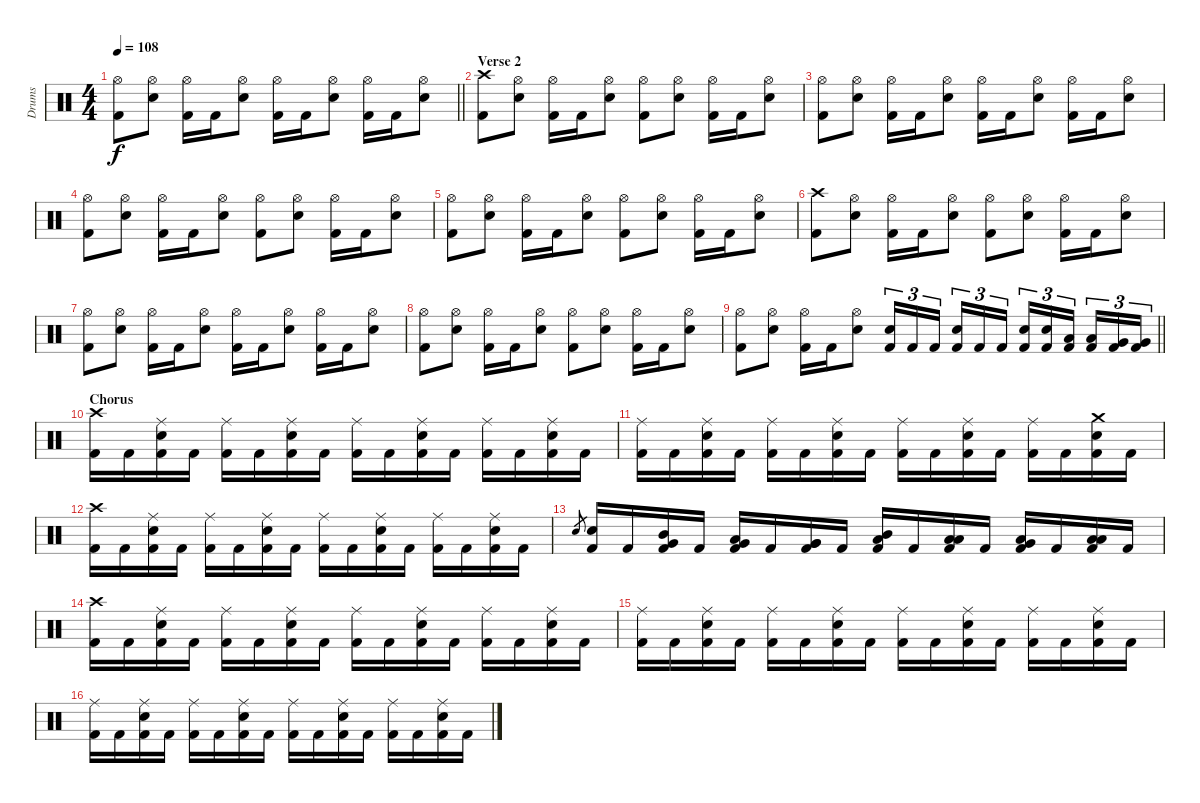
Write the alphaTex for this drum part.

\track ("Drums" "Drums") {instrument percussion}
\staff {score}
\articulation defaults
\ts (4 4)
\tempo 108
\clef neutral
\barLineRight lightlight
\ks c
("Hi-Hat (open)" "Kick (hit) 2").8{dy f} ("Hi-Hat (open)" "Electric Snare (hit)").8 ("Hi-Hat (open)" "Kick (hit) 2").16 "Kick (hit) 2".16 ("Hi-Hat (open)" "Electric Snare (hit)").8 ("Hi-Hat (open)" "Kick (hit) 2").16 "Kick (hit) 2".16 ("Hi-Hat (open)" "Electric Snare (hit)").8 ("Hi-Hat (open)" "Kick (hit) 2").16 "Kick (hit) 2".16 ("Hi-Hat (open)" "Electric Snare (hit)").8 |
\section ("" "Verse 2")
("Crash high (hit)" "Kick (hit) 2").8 ("Hi-Hat (open)" "Electric Snare (hit)").8 ("Hi-Hat (open)" "Kick (hit) 2").16 "Kick (hit) 2".16 ("Hi-Hat (open)" "Electric Snare (hit)").8 ("Hi-Hat (open)" "Kick (hit) 2").8 ("Hi-Hat (open)" "Electric Snare (hit)").8 ("Hi-Hat (open)" "Kick (hit) 2").16 "Kick (hit) 2".16 ("Hi-Hat (open)" "Electric Snare (hit)").8 |
("Hi-Hat (open)" "Kick (hit) 2").8 ("Hi-Hat (open)" "Electric Snare (hit)").8 ("Hi-Hat (open)" "Kick (hit) 2").16 "Kick (hit) 2".16 ("Hi-Hat (open)" "Electric Snare (hit)").8 ("Hi-Hat (open)" "Kick (hit) 2").16 "Kick (hit) 2".16 ("Hi-Hat (open)" "Electric Snare (hit)").8 ("Hi-Hat (open)" "Kick (hit) 2").16 "Kick (hit) 2".16 ("Hi-Hat (open)" "Electric Snare (hit)").8 |
("Hi-Hat (open)" "Kick (hit) 2").8 ("Hi-Hat (open)" "Electric Snare (hit)").8 ("Hi-Hat (open)" "Kick (hit) 2").16 "Kick (hit) 2".16 ("Hi-Hat (open)" "Electric Snare (hit)").8 ("Hi-Hat (open)" "Kick (hit) 2").8 ("Hi-Hat (open)" "Electric Snare (hit)").8 ("Hi-Hat (open)" "Kick (hit) 2").16 "Kick (hit) 2".16 ("Hi-Hat (open)" "Electric Snare (hit)").8 |
("Hi-Hat (open)" "Kick (hit) 2").8 ("Hi-Hat (open)" "Electric Snare (hit)").8 ("Hi-Hat (open)" "Kick (hit) 2").16 "Kick (hit) 2".16 ("Hi-Hat (open)" "Electric Snare (hit)").8 ("Hi-Hat (open)" "Kick (hit) 2").8 ("Hi-Hat (open)" "Electric Snare (hit)").8 ("Hi-Hat (open)" "Kick (hit) 2").16 "Kick (hit) 2".16 ("Hi-Hat (open)" "Electric Snare (hit)").8 |
("Crash high (hit)" "Kick (hit) 2").8 ("Hi-Hat (open)" "Electric Snare (hit)").8 ("Hi-Hat (open)" "Kick (hit) 2").16 "Kick (hit) 2".16 ("Hi-Hat (open)" "Electric Snare (hit)").8 ("Hi-Hat (open)" "Kick (hit) 2").8 ("Hi-Hat (open)" "Electric Snare (hit)").8 ("Hi-Hat (open)" "Kick (hit) 2").16 "Kick (hit) 2".16 ("Hi-Hat (open)" "Electric Snare (hit)").8 |
("Hi-Hat (open)" "Kick (hit) 2").8 ("Hi-Hat (open)" "Electric Snare (hit)").8 ("Hi-Hat (open)" "Kick (hit) 2").16 "Kick (hit) 2".16 ("Hi-Hat (open)" "Electric Snare (hit)").8 ("Hi-Hat (open)" "Kick (hit) 2").16 "Kick (hit) 2".16 ("Hi-Hat (open)" "Electric Snare (hit)").8 ("Hi-Hat (open)" "Kick (hit) 2").16 "Kick (hit) 2".16 ("Hi-Hat (open)" "Electric Snare (hit)").8 |
("Hi-Hat (open)" "Kick (hit) 2").8 ("Hi-Hat (open)" "Electric Snare (hit)").8 ("Hi-Hat (open)" "Kick (hit) 2").16 "Kick (hit) 2".16 ("Hi-Hat (open)" "Electric Snare (hit)").8 ("Hi-Hat (open)" "Kick (hit) 2").8 ("Hi-Hat (open)" "Electric Snare (hit)").8 ("Hi-Hat (open)" "Kick (hit) 2").16 "Kick (hit) 2".16 ("Hi-Hat (open)" "Electric Snare (hit)").8 |
\barLineRight lightlight
("Hi-Hat (open)" "Kick (hit) 2").8 ("Hi-Hat (open)" "Electric Snare (hit)").8 ("Hi-Hat (open)" "Kick (hit) 2").16 "Kick (hit) 2".16 ("Hi-Hat (open)" "Electric Snare (hit)").8 ("Electric Snare (hit)" "Kick (hit) 2").16{tu (3 2)} "Kick (hit) 2".16{tu (3 2)} "Kick (hit) 2".16{tu (3 2) beam splitsecondary} ("Electric Snare (hit)" "Kick (hit) 2").16{tu (3 2)} "Kick (hit) 2".16{tu (3 2)} "Kick (hit) 2".16{tu (3 2)} ("Electric Snare (hit)" "Kick (hit) 2").16{tu (3 2)} ("Electric Snare (hit)" "Kick (hit) 2").16{tu (3 2)} ("Low Tom (hit)" "Kick (hit) 2").16{tu (3 2) beam splitsecondary} ("Low Tom (hit)" "Kick (hit) 2").16{tu (3 2)} ("Very Low Tom (hit)" "Kick (hit) 2").16{tu (3 2)} ("Very Low Tom (hit)" "Kick (hit) 2").16{tu (3 2)} |
\section ("" "Chorus")
("Crash high (hit)" "Kick (hit) 2").16 "Kick (hit) 2".16 ("Ride (middle)" "Electric Snare (hit)" "Kick (hit) 2").16 "Kick (hit) 2".16 ("Ride (middle)" "Kick (hit) 2").16 "Kick (hit) 2".16 ("Ride (middle)" "Electric Snare (hit)" "Kick (hit) 2").16 "Kick (hit) 2".16 ("Ride (middle)" "Kick (hit) 2").16 "Kick (hit) 2".16 ("Ride (middle)" "Electric Snare (hit)" "Kick (hit) 2").16 "Kick (hit) 2".16 ("Ride (middle)" "Kick (hit) 2").16 "Kick (hit) 2".16 ("Ride (middle)" "Electric Snare (hit)" "Kick (hit) 2").16 "Kick (hit) 2".16 |
("Ride (middle)" "Kick (hit) 2").16 "Kick (hit) 2".16 ("Ride (middle)" "Electric Snare (hit)" "Kick (hit) 2").16 "Kick (hit) 2".16 ("Ride (middle)" "Kick (hit) 2").16 "Kick (hit) 2".16 ("Ride (middle)" "Electric Snare (hit)" "Kick (hit) 2").16 "Kick (hit) 2".16 ("Ride (middle)" "Kick (hit) 2").16 "Kick (hit) 2".16 ("Ride (middle)" "Electric Snare (hit)" "Kick (hit) 2").16 "Kick (hit) 2".16 ("Ride (middle)" "Kick (hit) 2").16 "Kick (hit) 2".16 ("Crash medium (hit)" "Electric Snare (hit)" "Kick (hit) 2").16 "Kick (hit) 2".16 |
("Crash high (hit)" "Kick (hit) 2").16 "Kick (hit) 2".16 ("Ride (middle)" "Electric Snare (hit)" "Kick (hit) 2").16 "Kick (hit) 2".16 ("Ride (middle)" "Kick (hit) 2").16 "Kick (hit) 2".16 ("Ride (middle)" "Electric Snare (hit)" "Kick (hit) 2").16 "Kick (hit) 2".16 ("Ride (middle)" "Kick (hit) 2").16 "Kick (hit) 2".16 ("Ride (middle)" "Electric Snare (hit)" "Kick (hit) 2").16 "Kick (hit) 2".16 ("Ride (middle)" "Kick (hit) 2").16 "Kick (hit) 2".16 ("Ride (middle)" "Electric Snare (hit)" "Kick (hit) 2").16 "Kick (hit) 2".16 |
"Electric Snare (hit)".8{gr} ("Electric Snare (hit)" "Kick (hit) 2").16 "Kick (hit) 2".16 ("Mid Tom (hit)" "Very Low Tom (hit)" "Kick (hit) 2").16 "Kick (hit) 2".16 ("Low Tom (hit)" "Very Low Tom (hit)" "Kick (hit) 2").16 "Kick (hit) 2".16 ("Very Low Tom (hit)" "Very Low Tom (hit)" "Kick (hit) 2").16 "Kick (hit) 2".16 ("Mid Tom (hit)" "Low Floor Tom (hit)" "Kick (hit) 2").16 "Kick (hit) 2".16 ("Low Tom (hit)" "Low Floor Tom (hit)" "Kick (hit) 2").16 "Kick (hit) 2".16 ("Very Low Tom (hit)" "Low Floor Tom (hit)" "Kick (hit) 2").16 "Kick (hit) 2".16 ("Low Floor Tom (hit)" "Low Floor Tom (hit)" "Kick (hit) 2").16 "Kick (hit) 2".16 |
("Crash high (hit)" "Kick (hit) 2").16 "Kick (hit) 2".16 ("Ride (middle)" "Electric Snare (hit)" "Kick (hit) 2").16 "Kick (hit) 2".16 ("Ride (middle)" "Kick (hit) 2").16 "Kick (hit) 2".16 ("Ride (middle)" "Electric Snare (hit)" "Kick (hit) 2").16 "Kick (hit) 2".16 ("Ride (middle)" "Kick (hit) 2").16 "Kick (hit) 2".16 ("Ride (middle)" "Electric Snare (hit)" "Kick (hit) 2").16 "Kick (hit) 2".16 ("Ride (middle)" "Kick (hit) 2").16 "Kick (hit) 2".16 ("Ride (middle)" "Electric Snare (hit)" "Kick (hit) 2").16 "Kick (hit) 2".16 |
("Ride (middle)" "Kick (hit) 2").16 "Kick (hit) 2".16 ("Ride (middle)" "Electric Snare (hit)" "Kick (hit) 2").16 "Kick (hit) 2".16 ("Ride (middle)" "Kick (hit) 2").16 "Kick (hit) 2".16 ("Ride (middle)" "Electric Snare (hit)" "Kick (hit) 2").16 "Kick (hit) 2".16 ("Ride (middle)" "Kick (hit) 2").16 "Kick (hit) 2".16 ("Ride (middle)" "Electric Snare (hit)" "Kick (hit) 2").16 "Kick (hit) 2".16 ("Ride (middle)" "Kick (hit) 2").16 "Kick (hit) 2".16 ("Ride (middle)" "Electric Snare (hit)" "Kick (hit) 2").16 "Kick (hit) 2".16 |
("Ride (middle)" "Kick (hit) 2").16 "Kick (hit) 2".16 ("Ride (middle)" "Electric Snare (hit)" "Kick (hit) 2").16 "Kick (hit) 2".16 ("Ride (middle)" "Kick (hit) 2").16 "Kick (hit) 2".16 ("Ride (middle)" "Electric Snare (hit)" "Kick (hit) 2").16 "Kick (hit) 2".16 ("Ride (middle)" "Kick (hit) 2").16 "Kick (hit) 2".16 ("Ride (middle)" "Electric Snare (hit)" "Kick (hit) 2").16 "Kick (hit) 2".16 ("Ride (middle)" "Kick (hit) 2").16 "Kick (hit) 2".16 ("Ride (middle)" "Electric Snare (hit)" "Kick (hit) 2").16 "Kick (hit) 2".16
